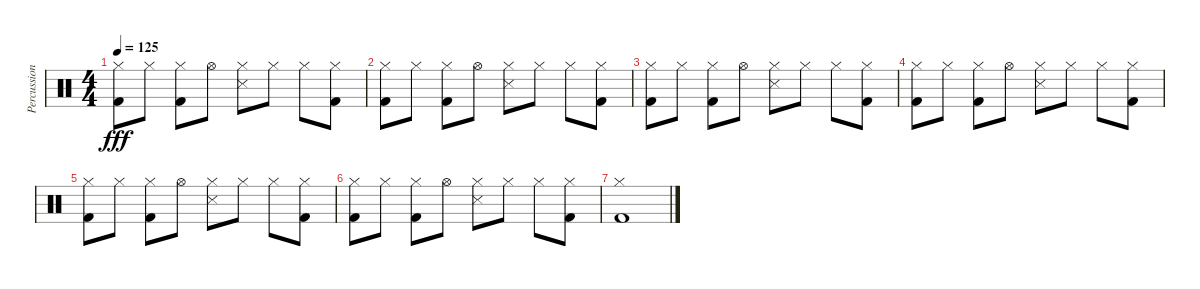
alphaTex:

\track ("Percussion" "Percussion") {instrument percussion}
\staff {score}
\articulation defaults
\ts (4 4)
\tempo 125
\clef neutral
\ks c
("Hi-Hat (closed)" "Kick (hit) 2").8{dy fff} "Hi-Hat (closed)".8 ("Hi-Hat (closed)" "Kick (hit) 2").8 "Hi-Hat (open)".8 ("Hi-Hat (closed)" "Snare (side stick) 3").8 "Hi-Hat (closed)".8 "Hi-Hat (closed)".8 ("Hi-Hat (closed)" "Kick (hit) 2").8 |
("Hi-Hat (closed)" "Kick (hit) 2").8 "Hi-Hat (closed)".8 ("Hi-Hat (closed)" "Kick (hit) 2").8 "Hi-Hat (open)".8 ("Hi-Hat (closed)" "Snare (side stick) 3").8 "Hi-Hat (closed)".8 "Hi-Hat (closed)".8 ("Hi-Hat (closed)" "Kick (hit) 2").8 |
("Hi-Hat (closed)" "Kick (hit) 2").8{volume 0} "Hi-Hat (closed)".8 ("Hi-Hat (closed)" "Kick (hit) 2").8 "Hi-Hat (open)".8 ("Hi-Hat (closed)" "Snare (side stick) 3").8 "Hi-Hat (closed)".8 "Hi-Hat (closed)".8 ("Hi-Hat (closed)" "Kick (hit) 2").8 |
("Hi-Hat (closed)" "Kick (hit) 2").8 "Hi-Hat (closed)".8 ("Hi-Hat (closed)" "Kick (hit) 2").8 "Hi-Hat (open)".8 ("Hi-Hat (closed)" "Snare (side stick) 3").8 "Hi-Hat (closed)".8 "Hi-Hat (closed)".8 ("Hi-Hat (closed)" "Kick (hit) 2").8 |
("Hi-Hat (closed)" "Kick (hit) 2").8 "Hi-Hat (closed)".8 ("Hi-Hat (closed)" "Kick (hit) 2").8 "Hi-Hat (open)".8 ("Hi-Hat (closed)" "Snare (side stick) 3").8 "Hi-Hat (closed)".8 "Hi-Hat (closed)".8 ("Hi-Hat (closed)" "Kick (hit) 2").8 |
("Hi-Hat (closed)" "Kick (hit) 2").8 "Hi-Hat (closed)".8 ("Hi-Hat (closed)" "Kick (hit) 2").8 "Hi-Hat (open)".8 ("Hi-Hat (closed)" "Snare (side stick) 3").8 "Hi-Hat (closed)".8 "Hi-Hat (closed)".8 ("Hi-Hat (closed)" "Kick (hit) 2").8 |
("Hi-Hat (closed)" "Kick (hit) 2").1
